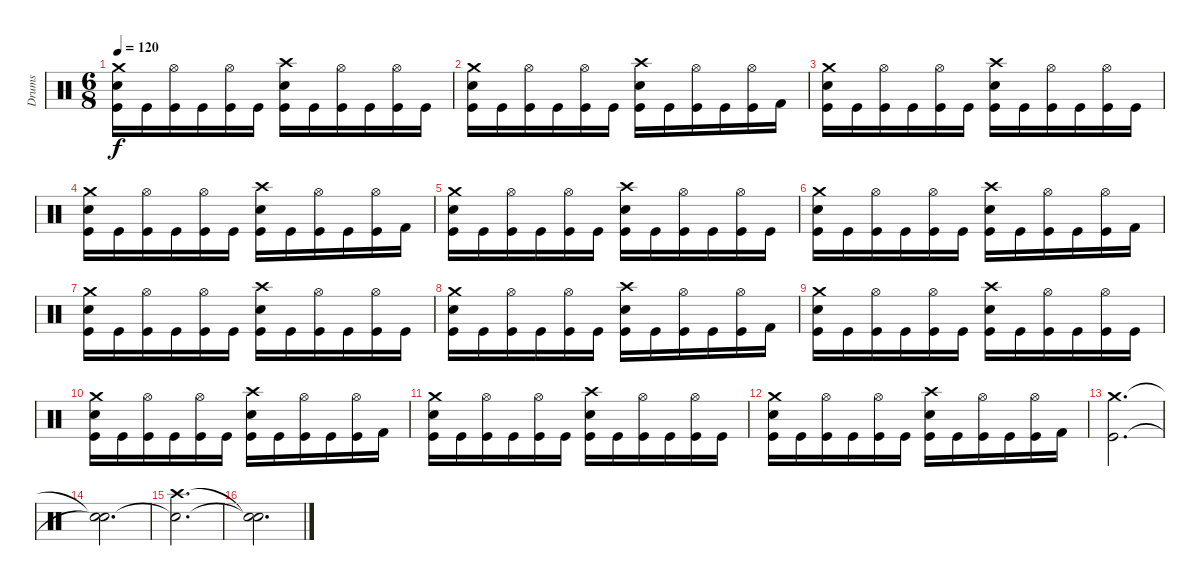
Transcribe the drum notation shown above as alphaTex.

\track ("Drums" "Drums") {instrument percussion}
\staff {score}
\articulation defaults
\ts (6 8)
\tempo 120
\clef neutral
\ks c
("Crash medium (hit)" "Electric Snare (hit)" "Kick (hit)").16{dy f beam merge} "Kick (hit)".16 ("Hi-Hat (open)" "Kick (hit)").16 "Kick (hit)".16 ("Hi-Hat (open)" "Kick (hit)").16 "Kick (hit)".16 ("Crash high (hit)" "Electric Snare (hit)" "Kick (hit)").16{beam merge} "Kick (hit)".16 ("Hi-Hat (open)" "Kick (hit)").16 "Kick (hit)".16 ("Hi-Hat (open)" "Kick (hit)").16 "Kick (hit)".16 |
("Crash medium (hit)" "Electric Snare (hit)" "Kick (hit)").16 "Kick (hit)".16 ("Hi-Hat (open)" "Kick (hit)").16 "Kick (hit)".16 ("Hi-Hat (open)" "Kick (hit)").16 "Kick (hit)".16 ("Crash high (hit)" "Electric Snare (hit)" "Kick (hit)").16{beam merge} "Kick (hit)".16{beam merge} ("Hi-Hat (open)" "Kick (hit)").16{beam merge} "Kick (hit)".16 ("Hi-Hat (open)" "Kick (hit)").16 "Kick (hit) 2".16 |
("Crash medium (hit)" "Electric Snare (hit)" "Kick (hit)").16{beam merge} "Kick (hit)".16 ("Hi-Hat (open)" "Kick (hit)").16 "Kick (hit)".16 ("Hi-Hat (open)" "Kick (hit)").16 "Kick (hit)".16 ("Crash high (hit)" "Electric Snare (hit)" "Kick (hit)").16{beam merge} "Kick (hit)".16 ("Hi-Hat (open)" "Kick (hit)").16 "Kick (hit)".16 ("Hi-Hat (open)" "Kick (hit)").16 "Kick (hit)".16 |
("Crash medium (hit)" "Electric Snare (hit)" "Kick (hit)").16 "Kick (hit)".16 ("Hi-Hat (open)" "Kick (hit)").16 "Kick (hit)".16 ("Hi-Hat (open)" "Kick (hit)").16 "Kick (hit)".16 ("Crash high (hit)" "Electric Snare (hit)" "Kick (hit)").16{beam merge} "Kick (hit)".16{beam merge} ("Hi-Hat (open)" "Kick (hit)").16{beam merge} "Kick (hit)".16 ("Hi-Hat (open)" "Kick (hit)").16 "Kick (hit) 2".16 |
("Crash medium (hit)" "Electric Snare (hit)" "Kick (hit)").16{beam merge} "Kick (hit)".16 ("Hi-Hat (open)" "Kick (hit)").16 "Kick (hit)".16 ("Hi-Hat (open)" "Kick (hit)").16 "Kick (hit)".16 ("Crash high (hit)" "Electric Snare (hit)" "Kick (hit)").16{beam merge} "Kick (hit)".16 ("Hi-Hat (open)" "Kick (hit)").16 "Kick (hit)".16 ("Hi-Hat (open)" "Kick (hit)").16 "Kick (hit)".16 |
("Crash medium (hit)" "Electric Snare (hit)" "Kick (hit)").16 "Kick (hit)".16 ("Hi-Hat (open)" "Kick (hit)").16 "Kick (hit)".16 ("Hi-Hat (open)" "Kick (hit)").16 "Kick (hit)".16 ("Crash high (hit)" "Electric Snare (hit)" "Kick (hit)").16{beam merge} "Kick (hit)".16{beam merge} ("Hi-Hat (open)" "Kick (hit)").16{beam merge} "Kick (hit)".16 ("Hi-Hat (open)" "Kick (hit)").16 "Kick (hit) 2".16 |
("Crash medium (hit)" "Electric Snare (hit)" "Kick (hit)").16{beam merge} "Kick (hit)".16 ("Hi-Hat (open)" "Kick (hit)").16 "Kick (hit)".16 ("Hi-Hat (open)" "Kick (hit)").16 "Kick (hit)".16 ("Crash high (hit)" "Electric Snare (hit)" "Kick (hit)").16{beam merge} "Kick (hit)".16 ("Hi-Hat (open)" "Kick (hit)").16 "Kick (hit)".16 ("Hi-Hat (open)" "Kick (hit)").16 "Kick (hit)".16 |
("Crash medium (hit)" "Electric Snare (hit)" "Kick (hit)").16 "Kick (hit)".16 ("Hi-Hat (open)" "Kick (hit)").16 "Kick (hit)".16 ("Hi-Hat (open)" "Kick (hit)").16 "Kick (hit)".16 ("Crash high (hit)" "Electric Snare (hit)" "Kick (hit)").16{beam merge} "Kick (hit)".16{beam merge} ("Hi-Hat (open)" "Kick (hit)").16{beam merge} "Kick (hit)".16 ("Hi-Hat (open)" "Kick (hit)").16 "Kick (hit) 2".16 |
("Crash medium (hit)" "Electric Snare (hit)" "Kick (hit)").16{beam merge} "Kick (hit)".16 ("Hi-Hat (open)" "Kick (hit)").16 "Kick (hit)".16 ("Hi-Hat (open)" "Kick (hit)").16 "Kick (hit)".16 ("Crash high (hit)" "Electric Snare (hit)" "Kick (hit)").16{beam merge} "Kick (hit)".16 ("Hi-Hat (open)" "Kick (hit)").16 "Kick (hit)".16 ("Hi-Hat (open)" "Kick (hit)").16 "Kick (hit)".16 |
("Crash medium (hit)" "Electric Snare (hit)" "Kick (hit)").16 "Kick (hit)".16 ("Hi-Hat (open)" "Kick (hit)").16 "Kick (hit)".16 ("Hi-Hat (open)" "Kick (hit)").16 "Kick (hit)".16 ("Crash high (hit)" "Electric Snare (hit)" "Kick (hit)").16{beam merge} "Kick (hit)".16{beam merge} ("Hi-Hat (open)" "Kick (hit)").16{beam merge} "Kick (hit)".16 ("Hi-Hat (open)" "Kick (hit)").16 "Kick (hit) 2".16 |
("Crash medium (hit)" "Electric Snare (hit)" "Kick (hit)").16{beam merge} "Kick (hit)".16 ("Hi-Hat (open)" "Kick (hit)").16 "Kick (hit)".16 ("Hi-Hat (open)" "Kick (hit)").16 "Kick (hit)".16 ("Crash high (hit)" "Electric Snare (hit)" "Kick (hit)").16{beam merge} "Kick (hit)".16 ("Hi-Hat (open)" "Kick (hit)").16 "Kick (hit)".16 ("Hi-Hat (open)" "Kick (hit)").16 "Kick (hit)".16 |
("Crash medium (hit)" "Electric Snare (hit)" "Kick (hit)").16 "Kick (hit)".16 ("Hi-Hat (open)" "Kick (hit)").16 "Kick (hit)".16 ("Hi-Hat (open)" "Kick (hit)").16 "Kick (hit)".16 ("Crash high (hit)" "Electric Snare (hit)" "Kick (hit)").16{beam merge} "Kick (hit)".16{beam merge} ("Hi-Hat (open)" "Kick (hit)").16{beam merge} "Kick (hit)".16 ("Hi-Hat (open)" "Kick (hit)").16 "Kick (hit) 2".16 |
("Crash medium (hit)" "Kick (hit)").2{d} |
("Snare (hit)"{t} "Snare (hit)"{t}).2{d} |
("Crash high (hit)" "Snare (hit)"{t}).2{d} |
("Snare (hit)"{t} "Snare (hit)"{t}).2{d}
